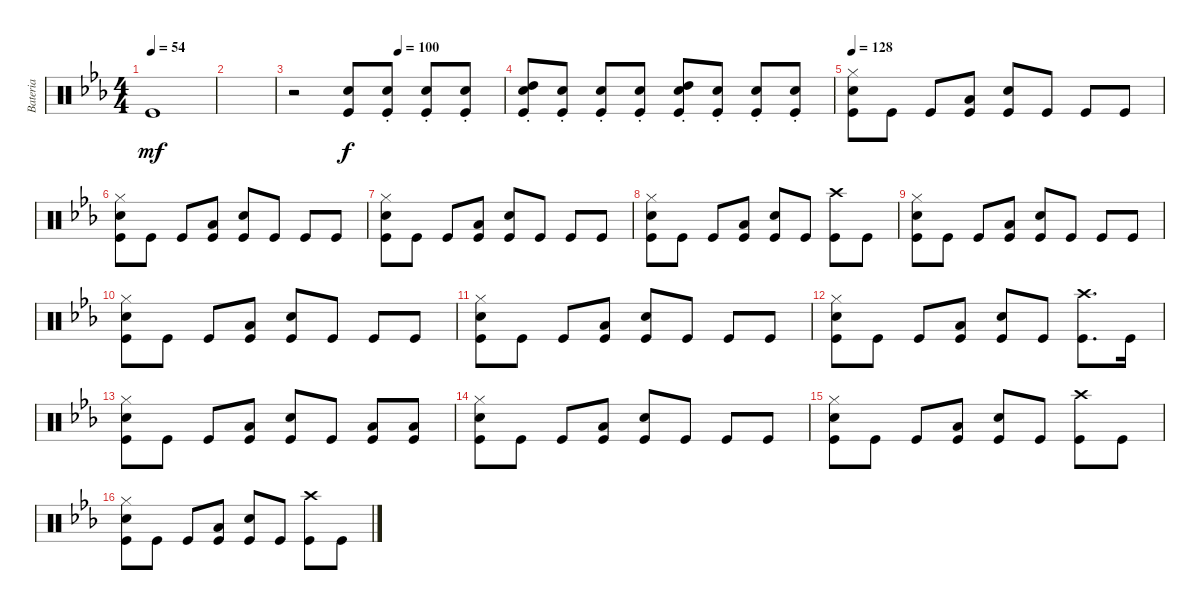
\track ("Bateria" "Bateria") {instrument percussion}
\staff {score}
\articulation defaults
\ts (4 4)
\tempo 54
\clef neutral
\ks eb "Kick (hit)".1{dy mf}
|
|
\tempo (100 0.5)
r.2 ("Snare (hit) 2" "Kick (hit)").8{dy f} ("Snare (hit) 2" "Kick (hit)"{st}).8 ("Snare (hit) 2" "Kick (hit)"{st}).8 ("Snare (hit) 2" "Kick (hit)"{st}).8 |
("High Tom (hit)" "Snare (hit) 2" "Kick (hit)"{st}).8 ("Snare (hit) 2" "Kick (hit)"{st}).8 ("Snare (hit) 2" "Kick (hit)"{st}).8 ("Snare (hit) 2" "Kick (hit)"{st}).8 ("High Tom (hit)" "Snare (hit) 2" "Kick (hit)"{st}).8 ("Snare (hit) 2" "Kick (hit)"{st}).8 ("Snare (hit) 2" "Kick (hit)"{st}).8 ("Snare (hit) 2" "Kick (hit)"{st}).8 |
\tempo 128
("Hi-Hat (closed)" "Snare (hit) 2" "Kick (hit)").8 "Kick (hit)".8 "Kick (hit)".8 ("Low Tom (hit)" "Kick (hit)").8 ("Snare (hit) 2" "Kick (hit)").8 "Kick (hit)".8 "Kick (hit)".8 "Kick (hit)".8 |
("Hi-Hat (closed)" "Snare (hit) 2" "Kick (hit)").8 "Kick (hit)".8 "Kick (hit)".8 ("Low Tom (hit)" "Kick (hit)").8 ("Snare (hit) 2" "Kick (hit)").8 "Kick (hit)".8 "Kick (hit)".8 "Kick (hit)".8 |
("Hi-Hat (closed)" "Snare (hit) 2" "Kick (hit)").8 "Kick (hit)".8 "Kick (hit)".8 ("Low Tom (hit)" "Kick (hit)").8 ("Snare (hit) 2" "Kick (hit)").8 "Kick (hit)".8 "Kick (hit)".8 "Kick (hit)".8 |
("Hi-Hat (closed)" "Snare (hit) 2" "Kick (hit)").8 "Kick (hit)".8 "Kick (hit)".8 ("Low Tom (hit)" "Kick (hit)").8 ("Snare (hit) 2" "Kick (hit)").8 "Kick (hit)".8 ("Crash high (hit)" "Kick (hit)").8 "Kick (hit)".8 |
("Hi-Hat (closed)" "Snare (hit) 2" "Kick (hit)").8 "Kick (hit)".8 "Kick (hit)".8 ("Low Tom (hit)" "Kick (hit)").8 ("Snare (hit) 2" "Kick (hit)").8 "Kick (hit)".8 "Kick (hit)".8 "Kick (hit)".8 |
("Hi-Hat (closed)" "Snare (hit) 2" "Kick (hit)").8 "Kick (hit)".8 "Kick (hit)".8 ("Low Tom (hit)" "Kick (hit)").8 ("Snare (hit) 2" "Kick (hit)").8 "Kick (hit)".8 "Kick (hit)".8 "Kick (hit)".8 |
("Hi-Hat (closed)" "Snare (hit) 2" "Kick (hit)").8 "Kick (hit)".8 "Kick (hit)".8 ("Low Tom (hit)" "Kick (hit)").8 ("Snare (hit) 2" "Kick (hit)").8 "Kick (hit)".8 "Kick (hit)".8 "Kick (hit)".8 |
("Hi-Hat (closed)" "Snare (hit) 2" "Kick (hit)").8 "Kick (hit)".8 "Kick (hit)".8 ("Low Tom (hit)" "Kick (hit)").8 ("Snare (hit) 2" "Kick (hit)").8 "Kick (hit)".8 ("Crash high (hit)" "Kick (hit)").8{d} "Kick (hit)".16 |
("Hi-Hat (closed)" "Snare (hit) 2" "Kick (hit)").8 "Kick (hit)".8 "Kick (hit)".8 ("Low Tom (hit)" "Kick (hit)").8 ("Snare (hit) 2" "Kick (hit)").8 "Kick (hit)".8 ("Low Tom (hit)" "Kick (hit)").8 ("Low Tom (hit)" "Kick (hit)").8 |
("Hi-Hat (closed)" "Snare (hit) 2" "Kick (hit)").8 "Kick (hit)".8 "Kick (hit)".8 ("Low Tom (hit)" "Kick (hit)").8 ("Snare (hit) 2" "Kick (hit)").8 "Kick (hit)".8 "Kick (hit)".8 "Kick (hit)".8 |
("Hi-Hat (closed)" "Snare (hit) 2" "Kick (hit)").8 "Kick (hit)".8 "Kick (hit)".8 ("Low Tom (hit)" "Kick (hit)").8 ("Snare (hit) 2" "Kick (hit)").8 "Kick (hit)".8 ("Crash high (hit)" "Kick (hit)").8 "Kick (hit)".8 |
("Hi-Hat (closed)" "Snare (hit) 2" "Kick (hit)").8 "Kick (hit)".8 "Kick (hit)".8 ("Low Tom (hit)" "Kick (hit)").8 ("Snare (hit) 2" "Kick (hit)").8 "Kick (hit)".8 ("Crash high (hit)" "Kick (hit)").8 "Kick (hit)".8
